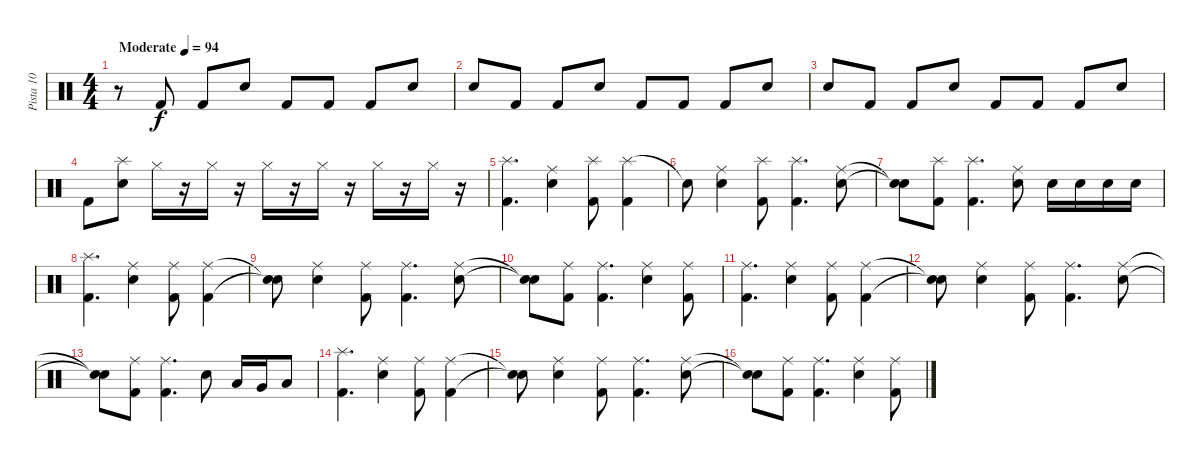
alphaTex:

\track ("Pista 10" "Pista 10") {instrument percussion}
\staff {score}
\articulation defaults
\ts (4 4)
\tempo (94 "Moderate")
\clef neutral
\ks c
r.8{dy f} "Kick (hit) 2".8 "Kick (hit) 2".8 "Snare (hit) 2".8 "Kick (hit) 2".8 "Kick (hit) 2".8 "Kick (hit) 2".8 "Snare (hit) 2".8 |
"Snare (hit) 2".8 "Kick (hit) 2".8 "Kick (hit) 2".8 "Snare (hit) 2".8 "Kick (hit) 2".8 "Kick (hit) 2".8 "Kick (hit) 2".8 "Snare (hit) 2".8 |
"Snare (hit) 2".8 "Kick (hit) 2".8 "Kick (hit) 2".8 "Snare (hit) 2".8 "Kick (hit) 2".8 "Kick (hit) 2".8 "Kick (hit) 2".8 "Snare (hit) 2".8 |
"Kick (hit) 2".8 ("Splash (hit)" "Snare (hit) 2").8 "Hi-Hat (closed)".16 r.16 "Hi-Hat (closed)".16 r.16 "Hi-Hat (closed)".16 r.16 "Hi-Hat (closed)".16 r.16 "Hi-Hat (closed)".16 r.16 "Hi-Hat (closed)".16 r.16 |
("Splash (hit)" "Kick (hit) 2").4{d} ("Ride (middle)" "Snare (hit) 2").4 ("Splash (hit)" "Kick (hit) 2").8 ("Splash (hit)" "Kick (hit) 2").4 |
"Snare (hit)"{t}.8 ("Ride (middle)" "Snare (hit) 2").4 ("Splash (hit)" "Kick (hit) 2").8 ("Splash (hit)" "Kick (hit) 2").4{d} ("Ride (middle)" "Snare (hit) 2").8 |
("Snare (hit)"{t} "Snare (hit)"{t}).8 ("Splash (hit)" "Kick (hit) 2").8 ("Splash (hit)" "Kick (hit) 2").4{d} ("Ride (middle)" "Snare (hit) 2").8 "Snare (hit) 2".16 "Snare (hit) 2".16 "Snare (hit) 2".16 "Snare (hit) 2".16 |
("Splash (hit)" "Kick (hit) 2").4{d} ("Ride (middle)" "Snare (hit) 2").4 ("Ride (middle)" "Kick (hit) 2").8 ("Ride (middle)" "Kick (hit) 2").4 |
("Snare (hit)"{t} "Snare (hit)"{t}).8 ("Ride (middle)" "Snare (hit) 2").4 ("Ride (middle)" "Kick (hit) 2").8 ("Ride (middle)" "Kick (hit) 2").4{d} ("Ride (middle)" "Snare (hit) 2").8 |
("Snare (hit)"{t} "Snare (hit)"{t}).8 ("Ride (middle)" "Kick (hit) 2").8 ("Ride (middle)" "Kick (hit) 2").4{d} ("Ride (middle)" "Snare (hit) 2").4 ("Ride (middle)" "Kick (hit) 2").8 |
("Ride (middle)" "Kick (hit) 2").4{d} ("Ride (middle)" "Snare (hit) 2").4 ("Ride (middle)" "Kick (hit) 2").8 ("Ride (middle)" "Kick (hit) 2").4 |
("Snare (hit)"{t} "Snare (hit)"{t}).8 ("Ride (middle)" "Snare (hit) 2").4 ("Ride (middle)" "Kick (hit) 2").8 ("Ride (middle)" "Kick (hit) 2").4{d} ("Ride (middle)" "Snare (hit) 2").8 |
("Snare (hit)"{t} "Snare (hit)"{t}).8 ("Ride (middle)" "Kick (hit) 2").8 ("Ride (middle)" "Kick (hit) 2").4{d} "Snare (hit) 2".8 "Low Tom (hit)".16 "Very Low Tom (hit)".16 "Low Floor Tom (hit)".8 |
("Splash (hit)" "Kick (hit) 2").4{d} ("Ride (middle)" "Snare (hit) 2").4 ("Ride (middle)" "Kick (hit) 2").8 ("Ride (middle)" "Kick (hit) 2").4 |
("Snare (hit)"{t} "Snare (hit)"{t}).8 ("Ride (middle)" "Snare (hit) 2").4 ("Ride (middle)" "Kick (hit) 2").8 ("Ride (middle)" "Kick (hit) 2").4{d} ("Ride (middle)" "Snare (hit) 2").8 |
("Snare (hit)"{t} "Snare (hit)"{t}).8 ("Ride (middle)" "Kick (hit) 2").8 ("Ride (middle)" "Kick (hit) 2").4{d} ("Ride (middle)" "Snare (hit) 2").4 ("Ride (middle)" "Kick (hit) 2").8
